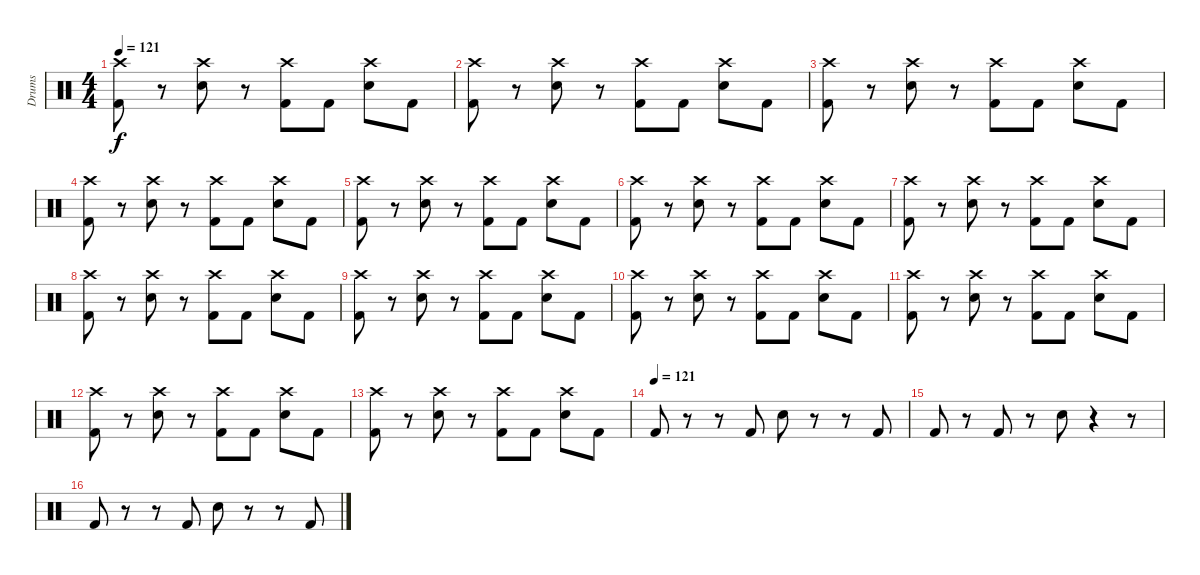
\track ("Drums" "Drums") {instrument percussion}
\staff {score}
\articulation defaults
\ts (4 4)
\tempo 121
\clef neutral
\ks c
("Crash high (hit)" "Kick (hit) 2").8{dy f} r.8 ("Crash high (hit)" "Electric Snare (hit)").8 r.8 ("Crash high (hit)" "Kick (hit) 2").8 "Kick (hit) 2".8 ("Crash high (hit)" "Electric Snare (hit)").8 "Kick (hit) 2".8 |
("Crash high (hit)" "Kick (hit) 2").8 r.8 ("Crash high (hit)" "Electric Snare (hit)").8 r.8 ("Crash high (hit)" "Kick (hit) 2").8 "Kick (hit) 2".8 ("Crash high (hit)" "Electric Snare (hit)").8 "Kick (hit) 2".8 |
("Crash high (hit)" "Kick (hit) 2").8 r.8 ("Crash high (hit)" "Electric Snare (hit)").8 r.8 ("Crash high (hit)" "Kick (hit) 2").8 "Kick (hit) 2".8 ("Crash high (hit)" "Electric Snare (hit)").8 "Kick (hit) 2".8 |
("Crash high (hit)" "Kick (hit) 2").8 r.8 ("Crash high (hit)" "Electric Snare (hit)").8 r.8 ("Crash high (hit)" "Kick (hit) 2").8 "Kick (hit) 2".8 ("Crash high (hit)" "Electric Snare (hit)").8 "Kick (hit) 2".8 |
("Crash high (hit)" "Kick (hit) 2").8 r.8 ("Crash high (hit)" "Electric Snare (hit)").8 r.8 ("Crash high (hit)" "Kick (hit) 2").8 "Kick (hit) 2".8 ("Crash high (hit)" "Electric Snare (hit)").8 "Kick (hit) 2".8 |
("Crash high (hit)" "Kick (hit) 2").8 r.8 ("Crash high (hit)" "Electric Snare (hit)").8 r.8 ("Crash high (hit)" "Kick (hit) 2").8 "Kick (hit) 2".8 ("Crash high (hit)" "Electric Snare (hit)").8 "Kick (hit) 2".8 |
("Crash high (hit)" "Kick (hit) 2").8 r.8 ("Crash high (hit)" "Electric Snare (hit)").8 r.8 ("Crash high (hit)" "Kick (hit) 2").8 "Kick (hit) 2".8 ("Crash high (hit)" "Electric Snare (hit)").8 "Kick (hit) 2".8 |
("Crash high (hit)" "Kick (hit) 2").8 r.8 ("Crash high (hit)" "Electric Snare (hit)").8 r.8 ("Crash high (hit)" "Kick (hit) 2").8 "Kick (hit) 2".8 ("Crash high (hit)" "Electric Snare (hit)").8 "Kick (hit) 2".8 |
("Crash high (hit)" "Kick (hit) 2").8 r.8 ("Crash high (hit)" "Electric Snare (hit)").8 r.8 ("Crash high (hit)" "Kick (hit) 2").8 "Kick (hit) 2".8 ("Crash high (hit)" "Electric Snare (hit)").8 "Kick (hit) 2".8 |
("Crash high (hit)" "Kick (hit) 2").8 r.8 ("Crash high (hit)" "Electric Snare (hit)").8 r.8 ("Crash high (hit)" "Kick (hit) 2").8 "Kick (hit) 2".8 ("Crash high (hit)" "Electric Snare (hit)").8 "Kick (hit) 2".8 |
("Crash high (hit)" "Kick (hit) 2").8 r.8 ("Crash high (hit)" "Electric Snare (hit)").8 r.8 ("Crash high (hit)" "Kick (hit) 2").8 "Kick (hit) 2".8 ("Crash high (hit)" "Electric Snare (hit)").8 "Kick (hit) 2".8 |
("Crash high (hit)" "Kick (hit) 2").8 r.8 ("Crash high (hit)" "Electric Snare (hit)").8 r.8 ("Crash high (hit)" "Kick (hit) 2").8 "Kick (hit) 2".8 ("Crash high (hit)" "Electric Snare (hit)").8 "Kick (hit) 2".8 |
("Crash high (hit)" "Kick (hit) 2").8 r.8 ("Crash high (hit)" "Electric Snare (hit)").8 r.8 ("Crash high (hit)" "Kick (hit) 2").8 "Kick (hit) 2".8 ("Crash high (hit)" "Electric Snare (hit)").8 "Kick (hit) 2".8 |
\tempo (121)
"Kick (hit) 2".8 r.8 r.8 "Kick (hit) 2".8 "Electric Snare (hit)".8 r.8 r.8 "Kick (hit) 2".8 |
"Kick (hit) 2".8 r.8 "Kick (hit) 2".8 r.8 "Electric Snare (hit)".8 r.4 r.8 |
"Kick (hit) 2".8 r.8 r.8 "Kick (hit) 2".8 "Electric Snare (hit)".8 r.8 r.8 "Kick (hit) 2".8
